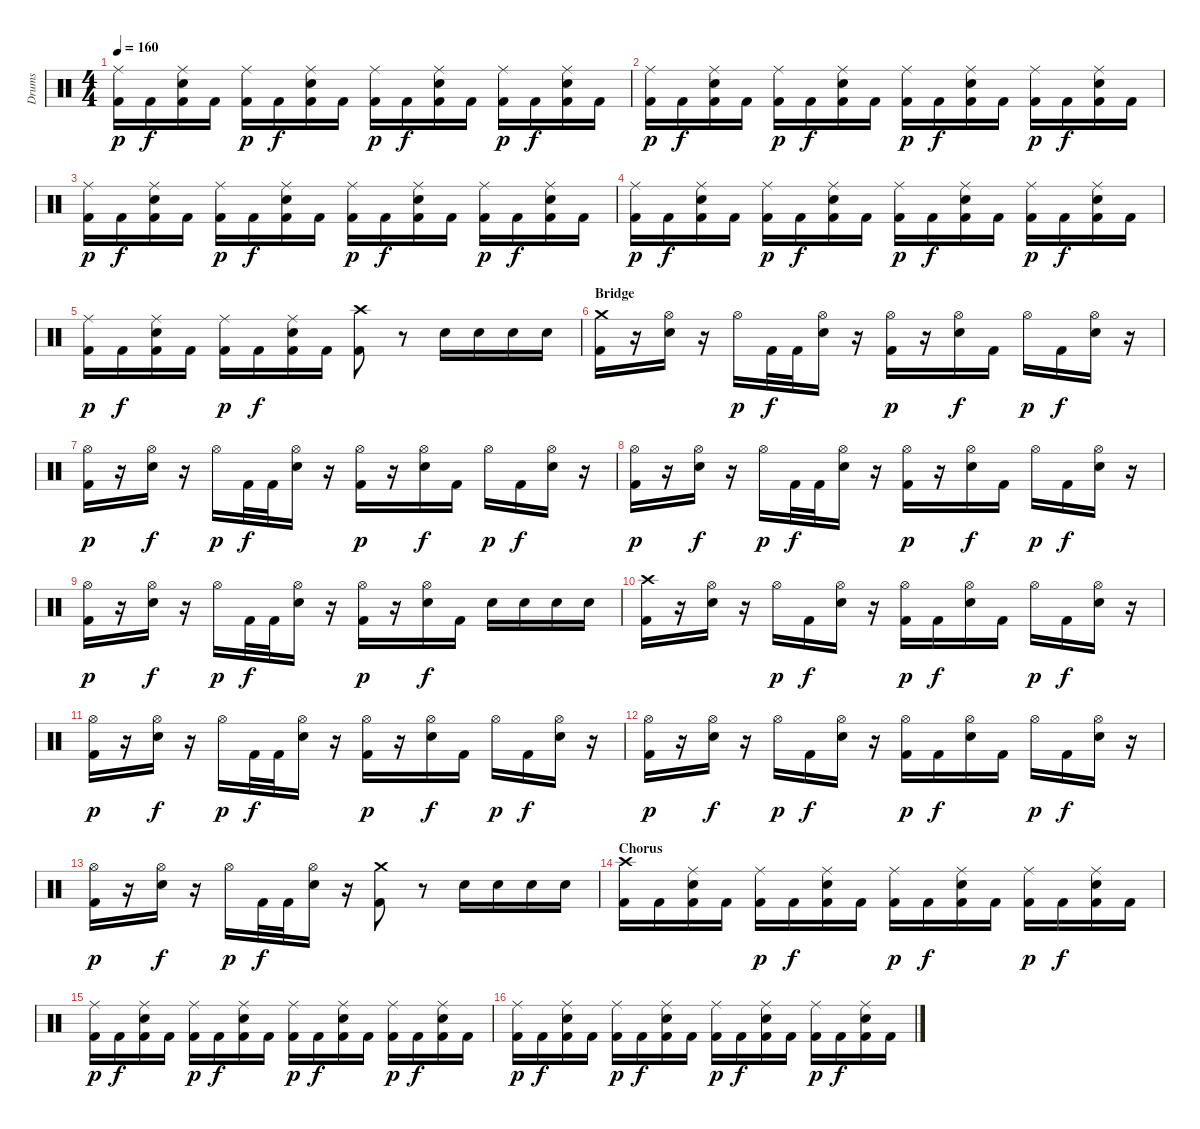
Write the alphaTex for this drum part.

\track ("Drums" "Drums") {instrument percussion}
\staff {score}
\articulation defaults
\ts (4 4)
\tempo 160
\clef neutral
\ks c
("Ride (middle)" "Kick (hit) 2").16{dy p} "Kick (hit) 2".16{dy f} ("Ride (middle)" "Snare (hit) 2" "Kick (hit) 2").16 "Kick (hit) 2".16 ("Ride (middle)" "Kick (hit) 2").16{dy p} "Kick (hit) 2".16{dy f} ("Ride (middle)" "Snare (hit) 2" "Kick (hit) 2").16 "Kick (hit) 2".16 ("Ride (middle)" "Kick (hit) 2").16{dy p} "Kick (hit) 2".16{dy f} ("Ride (middle)" "Snare (hit) 2" "Kick (hit) 2").16 "Kick (hit) 2".16 ("Ride (middle)" "Kick (hit) 2").16{dy p} "Kick (hit) 2".16{dy f} ("Ride (middle)" "Snare (hit) 2" "Kick (hit) 2").16 "Kick (hit) 2".16 |
("Ride (middle)" "Kick (hit) 2").16{dy p} "Kick (hit) 2".16{dy f} ("Ride (middle)" "Snare (hit) 2" "Kick (hit) 2").16 "Kick (hit) 2".16 ("Ride (middle)" "Kick (hit) 2").16{dy p} "Kick (hit) 2".16{dy f} ("Ride (middle)" "Snare (hit) 2" "Kick (hit) 2").16 "Kick (hit) 2".16 ("Ride (middle)" "Kick (hit) 2").16{dy p} "Kick (hit) 2".16{dy f} ("Ride (middle)" "Snare (hit) 2" "Kick (hit) 2").16 "Kick (hit) 2".16 ("Ride (middle)" "Kick (hit) 2").16{dy p} "Kick (hit) 2".16{dy f} ("Ride (middle)" "Snare (hit) 2" "Kick (hit) 2").16 "Kick (hit) 2".16 |
("Ride (middle)" "Kick (hit) 2").16{dy p} "Kick (hit) 2".16{dy f} ("Ride (middle)" "Snare (hit) 2" "Kick (hit) 2").16 "Kick (hit) 2".16 ("Ride (middle)" "Kick (hit) 2").16{dy p} "Kick (hit) 2".16{dy f} ("Ride (middle)" "Snare (hit) 2" "Kick (hit) 2").16 "Kick (hit) 2".16 ("Ride (middle)" "Kick (hit) 2").16{dy p} "Kick (hit) 2".16{dy f} ("Ride (middle)" "Snare (hit) 2" "Kick (hit) 2").16 "Kick (hit) 2".16 ("Ride (middle)" "Kick (hit) 2").16{dy p} "Kick (hit) 2".16{dy f} ("Ride (middle)" "Snare (hit) 2" "Kick (hit) 2").16 "Kick (hit) 2".16 |
("Ride (middle)" "Kick (hit) 2").16{dy p} "Kick (hit) 2".16{dy f} ("Ride (middle)" "Snare (hit) 2" "Kick (hit) 2").16 "Kick (hit) 2".16 ("Ride (middle)" "Kick (hit) 2").16{dy p} "Kick (hit) 2".16{dy f} ("Ride (middle)" "Snare (hit) 2" "Kick (hit) 2").16 "Kick (hit) 2".16 ("Ride (middle)" "Kick (hit) 2").16{dy p} "Kick (hit) 2".16{dy f} ("Ride (middle)" "Snare (hit) 2" "Kick (hit) 2").16 "Kick (hit) 2".16 ("Ride (middle)" "Kick (hit) 2").16{dy p} "Kick (hit) 2".16{dy f} ("Ride (middle)" "Snare (hit) 2" "Kick (hit) 2").16 "Kick (hit) 2".16 |
("Ride (middle)" "Kick (hit) 2").16{dy p} "Kick (hit) 2".16{dy f} ("Ride (middle)" "Snare (hit) 2" "Kick (hit) 2").16 "Kick (hit) 2".16 ("Ride (middle)" "Kick (hit) 2").16{dy p} "Kick (hit) 2".16{dy f} ("Ride (middle)" "Snare (hit) 2" "Kick (hit) 2").16 "Kick (hit) 2".16 ("Crash high (hit)" "Kick (hit) 2").8 r.8 "Snare (hit) 2".16 "Snare (hit) 2".16 "Snare (hit) 2".16 "Snare (hit) 2".16 |
\section ("" "Bridge")
("Crash medium (hit)" "Kick (hit) 2").16 r.16 ("Hi-Hat (open)" "Snare (hit) 2").16 r.16 "Hi-Hat (open)".16{dy p} "Kick (hit) 2".32{dy f} "Kick (hit) 2".32 ("Hi-Hat (open)" "Snare (hit) 2").16 r.16 ("Hi-Hat (open)" "Kick (hit) 2").16{dy p} r.16 ("Hi-Hat (open)" "Snare (hit) 2").16{dy f} "Kick (hit) 2".16 "Hi-Hat (open)".16{dy p} "Kick (hit) 2".16{dy f} ("Hi-Hat (open)" "Snare (hit) 2").16 r.16 |
("Hi-Hat (open)" "Kick (hit) 2").16{dy p} r.16 ("Hi-Hat (open)" "Snare (hit) 2").16{dy f} r.16 "Hi-Hat (open)".16{dy p} "Kick (hit) 2".32{dy f} "Kick (hit) 2".32 ("Hi-Hat (open)" "Snare (hit) 2").16 r.16 ("Hi-Hat (open)" "Kick (hit) 2").16{dy p} r.16 ("Hi-Hat (open)" "Snare (hit) 2").16{dy f} "Kick (hit) 2".16 "Hi-Hat (open)".16{dy p} "Kick (hit) 2".16{dy f} ("Hi-Hat (open)" "Snare (hit) 2").16 r.16 |
("Hi-Hat (open)" "Kick (hit) 2").16{dy p} r.16 ("Hi-Hat (open)" "Snare (hit) 2").16{dy f} r.16 "Hi-Hat (open)".16{dy p} "Kick (hit) 2".32{dy f} "Kick (hit) 2".32 ("Hi-Hat (open)" "Snare (hit) 2").16 r.16 ("Hi-Hat (open)" "Kick (hit) 2").16{dy p} r.16 ("Hi-Hat (open)" "Snare (hit) 2").16{dy f} "Kick (hit) 2".16 "Hi-Hat (open)".16{dy p} "Kick (hit) 2".16{dy f} ("Hi-Hat (open)" "Snare (hit) 2").16 r.16 |
("Hi-Hat (open)" "Kick (hit) 2").16{dy p} r.16 ("Hi-Hat (open)" "Snare (hit) 2").16{dy f} r.16 "Hi-Hat (open)".16{dy p} "Kick (hit) 2".32{dy f} "Kick (hit) 2".32 ("Hi-Hat (open)" "Snare (hit) 2").16 r.16 ("Hi-Hat (open)" "Kick (hit) 2").16{dy p} r.16 ("Hi-Hat (open)" "Snare (hit) 2").16{dy f} "Kick (hit) 2".16 "Snare (hit) 2".16 "Snare (hit) 2".16 "Snare (hit) 2".16 "Snare (hit) 2".16 |
("Crash high (hit)" "Kick (hit) 2").16 r.16 ("Hi-Hat (open)" "Snare (hit) 2").16 r.16 "Hi-Hat (open)".16{dy p} "Kick (hit) 2".16{dy f} ("Hi-Hat (open)" "Snare (hit) 2").16 r.16 ("Hi-Hat (open)" "Kick (hit) 2").16{dy p} "Kick (hit) 2".16{dy f} ("Hi-Hat (open)" "Snare (hit) 2").16 "Kick (hit) 2".16 "Hi-Hat (open)".16{dy p} "Kick (hit) 2".16{dy f} ("Hi-Hat (open)" "Snare (hit) 2").16 r.16 |
("Hi-Hat (open)" "Kick (hit) 2").16{dy p} r.16 ("Hi-Hat (open)" "Snare (hit) 2").16{dy f} r.16 "Hi-Hat (open)".16{dy p} "Kick (hit) 2".32{dy f} "Kick (hit) 2".32 ("Hi-Hat (open)" "Snare (hit) 2").16 r.16 ("Hi-Hat (open)" "Kick (hit) 2").16{dy p} r.16 ("Hi-Hat (open)" "Snare (hit) 2").16{dy f} "Kick (hit) 2".16 "Hi-Hat (open)".16{dy p} "Kick (hit) 2".16{dy f} ("Hi-Hat (open)" "Snare (hit) 2").16 r.16 |
("Hi-Hat (open)" "Kick (hit) 2").16{dy p} r.16 ("Hi-Hat (open)" "Snare (hit) 2").16{dy f} r.16 "Hi-Hat (open)".16{dy p} "Kick (hit) 2".16{dy f} ("Hi-Hat (open)" "Snare (hit) 2").16 r.16 ("Hi-Hat (open)" "Kick (hit) 2").16{dy p} "Kick (hit) 2".16{dy f} ("Hi-Hat (open)" "Snare (hit) 2").16 "Kick (hit) 2".16 "Hi-Hat (open)".16{dy p} "Kick (hit) 2".16{dy f} ("Hi-Hat (open)" "Snare (hit) 2").16 r.16 |
("Hi-Hat (open)" "Kick (hit) 2").16{dy p} r.16 ("Hi-Hat (open)" "Snare (hit) 2").16{dy f} r.16 "Hi-Hat (open)".16{dy p} "Kick (hit) 2".32{dy f} "Kick (hit) 2".32 ("Hi-Hat (open)" "Snare (hit) 2").16 r.16 ("Crash medium (hit)" "Kick (hit) 2").8 r.8 "Snare (hit) 2".16 "Snare (hit) 2".16 "Snare (hit) 2".16 "Snare (hit) 2".16 |
\section ("" "Chorus")
("Crash high (hit)" "Kick (hit) 2").16 "Kick (hit) 2".16 ("Ride (middle)" "Snare (hit) 2" "Kick (hit) 2").16 "Kick (hit) 2".16 ("Ride (middle)" "Kick (hit) 2").16{dy p} "Kick (hit) 2".16{dy f} ("Ride (middle)" "Snare (hit) 2" "Kick (hit) 2").16 "Kick (hit) 2".16 ("Ride (middle)" "Kick (hit) 2").16{dy p} "Kick (hit) 2".16{dy f} ("Ride (middle)" "Snare (hit) 2" "Kick (hit) 2").16 "Kick (hit) 2".16 ("Ride (middle)" "Kick (hit) 2").16{dy p} "Kick (hit) 2".16{dy f} ("Ride (middle)" "Snare (hit) 2" "Kick (hit) 2").16 "Kick (hit) 2".16 |
("Ride (middle)" "Kick (hit) 2").16{dy p} "Kick (hit) 2".16{dy f} ("Ride (middle)" "Snare (hit) 2" "Kick (hit) 2").16 "Kick (hit) 2".16 ("Ride (middle)" "Kick (hit) 2").16{dy p} "Kick (hit) 2".16{dy f} ("Ride (middle)" "Snare (hit) 2" "Kick (hit) 2").16 "Kick (hit) 2".16 ("Ride (middle)" "Kick (hit) 2").16{dy p} "Kick (hit) 2".16{dy f} ("Ride (middle)" "Snare (hit) 2" "Kick (hit) 2").16 "Kick (hit) 2".16 ("Ride (middle)" "Kick (hit) 2").16{dy p} "Kick (hit) 2".16{dy f} ("Ride (middle)" "Snare (hit) 2" "Kick (hit) 2").16 "Kick (hit) 2".16 |
("Ride (middle)" "Kick (hit) 2").16{dy p} "Kick (hit) 2".16{dy f} ("Ride (middle)" "Snare (hit) 2" "Kick (hit) 2").16 "Kick (hit) 2".16 ("Ride (middle)" "Kick (hit) 2").16{dy p} "Kick (hit) 2".16{dy f} ("Ride (middle)" "Snare (hit) 2" "Kick (hit) 2").16 "Kick (hit) 2".16 ("Ride (middle)" "Kick (hit) 2").16{dy p} "Kick (hit) 2".16{dy f} ("Ride (middle)" "Snare (hit) 2" "Kick (hit) 2").16 "Kick (hit) 2".16 ("Ride (middle)" "Kick (hit) 2").16{dy p} "Kick (hit) 2".16{dy f} ("Ride (middle)" "Snare (hit) 2" "Kick (hit) 2").16 "Kick (hit) 2".16
